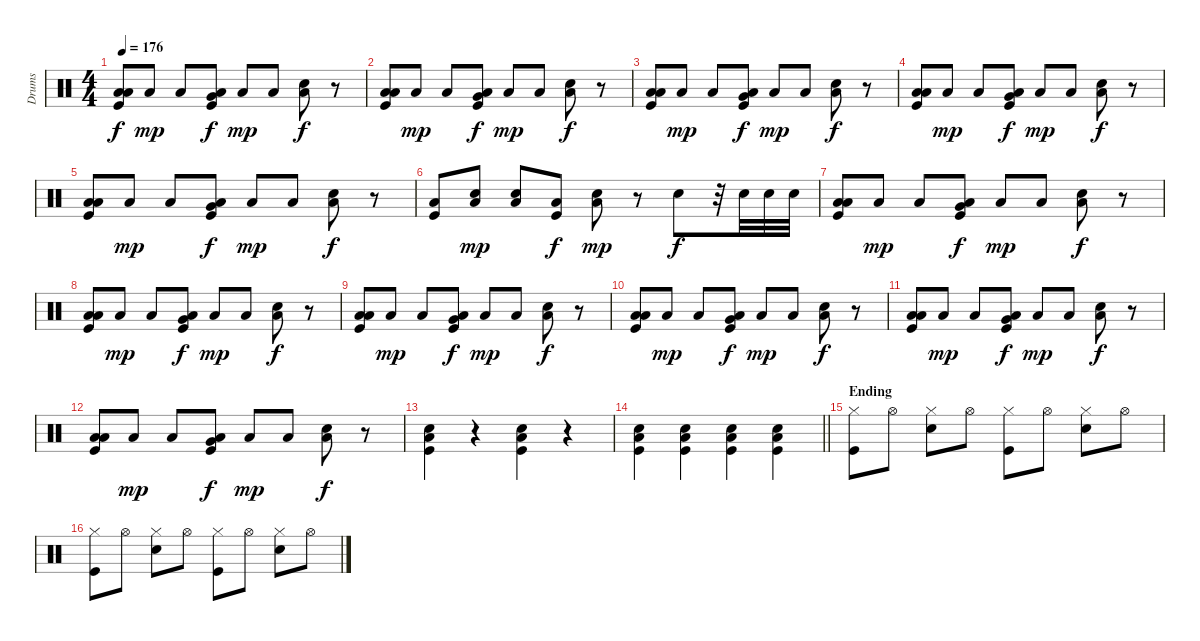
\track ("Drums" "Drums") {instrument percussion}
\staff {score}
\articulation defaults
\ts (4 4)
\tempo 176
\clef neutral
\ks c
("Low Tom (hit)" "Low Floor Tom (hit)" "Kick (hit)").8{dy f} "Low Floor Tom (hit)".8{dy mp} "Low Floor Tom (hit)".8 ("Very Low Tom (hit)" "Low Floor Tom (hit)" "Kick (hit)").8{dy f} "Low Floor Tom (hit)".8{dy mp} "Low Floor Tom (hit)".8 ("Electric Snare (hit)" "Low Floor Tom (hit)").8{dy f} r.8 |
("Low Tom (hit)" "Low Floor Tom (hit)" "Kick (hit)").8 "Low Floor Tom (hit)".8{dy mp} "Low Floor Tom (hit)".8 ("Very Low Tom (hit)" "Low Floor Tom (hit)" "Kick (hit)").8{dy f} "Low Floor Tom (hit)".8{dy mp} "Low Floor Tom (hit)".8 ("Electric Snare (hit)" "Low Floor Tom (hit)").8{dy f} r.8 |
("Low Tom (hit)" "Low Floor Tom (hit)" "Kick (hit)").8 "Low Floor Tom (hit)".8{dy mp} "Low Floor Tom (hit)".8 ("Very Low Tom (hit)" "Low Floor Tom (hit)" "Kick (hit)").8{dy f} "Low Floor Tom (hit)".8{dy mp} "Low Floor Tom (hit)".8 ("Electric Snare (hit)" "Low Floor Tom (hit)").8{dy f} r.8 |
("Low Tom (hit)" "Low Floor Tom (hit)" "Kick (hit)").8 "Low Floor Tom (hit)".8{dy mp} "Low Floor Tom (hit)".8 ("Very Low Tom (hit)" "Low Floor Tom (hit)" "Kick (hit)").8{dy f} "Low Floor Tom (hit)".8{dy mp} "Low Floor Tom (hit)".8 ("Electric Snare (hit)" "Low Floor Tom (hit)").8{dy f} r.8 |
("Low Tom (hit)" "Low Floor Tom (hit)" "Kick (hit)").8 "Low Floor Tom (hit)".8{dy mp} "Low Floor Tom (hit)".8 ("Very Low Tom (hit)" "Low Floor Tom (hit)" "Kick (hit)").8{dy f} "Low Floor Tom (hit)".8{dy mp} "Low Floor Tom (hit)".8 ("Electric Snare (hit)" "Low Floor Tom (hit)").8{dy f} r.8 |
("Low Floor Tom (hit)" "Kick (hit)").8 ("Electric Snare (hit)" "Low Floor Tom (hit)").8{dy mp} ("Electric Snare (hit)" "Low Floor Tom (hit)").8 ("Low Floor Tom (hit)" "Kick (hit)").8{dy f} ("Electric Snare (hit)" "Low Floor Tom (hit)").8{dy mp} r.8 "Electric Snare (hit)".8{dy f} r.32 "Electric Snare (hit)".32 "Electric Snare (hit)".32 "Electric Snare (hit)".32 |
("Low Tom (hit)" "Low Floor Tom (hit)" "Kick (hit)").8 "Low Floor Tom (hit)".8{dy mp} "Low Floor Tom (hit)".8 ("Very Low Tom (hit)" "Low Floor Tom (hit)" "Kick (hit)").8{dy f} "Low Floor Tom (hit)".8{dy mp} "Low Floor Tom (hit)".8 ("Electric Snare (hit)" "Low Floor Tom (hit)").8{dy f} r.8 |
("Low Tom (hit)" "Low Floor Tom (hit)" "Kick (hit)").8 "Low Floor Tom (hit)".8{dy mp} "Low Floor Tom (hit)".8 ("Very Low Tom (hit)" "Low Floor Tom (hit)" "Kick (hit)").8{dy f} "Low Floor Tom (hit)".8{dy mp} "Low Floor Tom (hit)".8 ("Electric Snare (hit)" "Low Floor Tom (hit)").8{dy f} r.8 |
("Low Tom (hit)" "Low Floor Tom (hit)" "Kick (hit)").8 "Low Floor Tom (hit)".8{dy mp} "Low Floor Tom (hit)".8 ("Very Low Tom (hit)" "Low Floor Tom (hit)" "Kick (hit)").8{dy f} "Low Floor Tom (hit)".8{dy mp} "Low Floor Tom (hit)".8 ("Electric Snare (hit)" "Low Floor Tom (hit)").8{dy f} r.8 |
("Low Tom (hit)" "Low Floor Tom (hit)" "Kick (hit)").8 "Low Floor Tom (hit)".8{dy mp} "Low Floor Tom (hit)".8 ("Very Low Tom (hit)" "Low Floor Tom (hit)" "Kick (hit)").8{dy f} "Low Floor Tom (hit)".8{dy mp} "Low Floor Tom (hit)".8 ("Electric Snare (hit)" "Low Floor Tom (hit)").8{dy f} r.8 |
("Low Tom (hit)" "Low Floor Tom (hit)" "Kick (hit)").8 "Low Floor Tom (hit)".8{dy mp} "Low Floor Tom (hit)".8 ("Very Low Tom (hit)" "Low Floor Tom (hit)" "Kick (hit)").8{dy f} "Low Floor Tom (hit)".8{dy mp} "Low Floor Tom (hit)".8 ("Electric Snare (hit)" "Low Floor Tom (hit)").8{dy f} r.8 |
("Low Tom (hit)" "Low Floor Tom (hit)" "Kick (hit)").8 "Low Floor Tom (hit)".8{dy mp} "Low Floor Tom (hit)".8 ("Very Low Tom (hit)" "Low Floor Tom (hit)" "Kick (hit)").8{dy f} "Low Floor Tom (hit)".8{dy mp} "Low Floor Tom (hit)".8 ("Electric Snare (hit)" "Low Floor Tom (hit)").8{dy f} r.8 |
("Electric Snare (hit)" "Low Floor Tom (hit)" "Kick (hit)").4 r.4 ("Electric Snare (hit)" "Low Floor Tom (hit)" "Kick (hit)").4 r.4 |
\barLineRight lightlight
("Electric Snare (hit)" "Low Floor Tom (hit)" "Kick (hit)").4 ("Electric Snare (hit)" "Low Floor Tom (hit)" "Kick (hit)").4 ("Electric Snare (hit)" "Low Floor Tom (hit)" "Kick (hit)").4 ("Electric Snare (hit)" "Low Floor Tom (hit)" "Kick (hit)").4 |
\section ("" "Ending")
("Hi-Hat (closed)" "Kick (hit)").8 "Hi-Hat (open)".8 ("Hi-Hat (closed)" "Electric Snare (hit)").8 "Hi-Hat (open)".8 ("Hi-Hat (closed)" "Kick (hit)").8 "Hi-Hat (open)".8 ("Hi-Hat (closed)" "Electric Snare (hit)").8 "Hi-Hat (open)".8 |
("Hi-Hat (closed)" "Kick (hit)").8 "Hi-Hat (open)".8 ("Hi-Hat (closed)" "Electric Snare (hit)").8 "Hi-Hat (open)".8 ("Hi-Hat (closed)" "Kick (hit)").8 "Hi-Hat (open)".8 ("Hi-Hat (closed)" "Electric Snare (hit)").8 "Hi-Hat (open)".8
